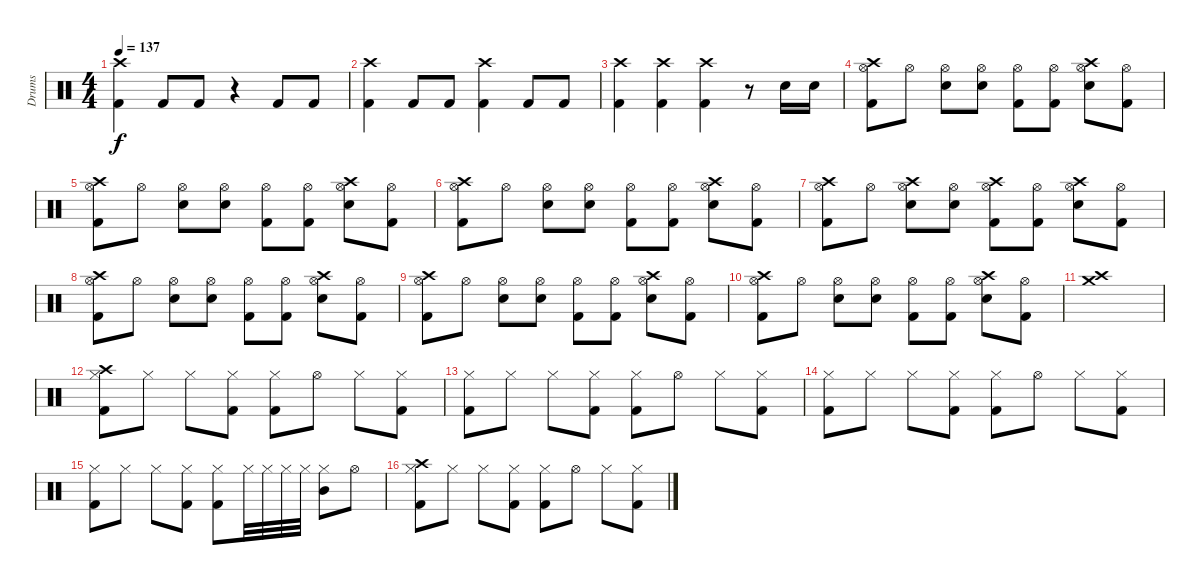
\track ("Drums" "Drums") {instrument percussion}
\staff {score}
\articulation defaults
\ts (4 4)
\tempo 137
\clef neutral
\ks c
("Crash high (hit)" "Kick (hit) 2").4{dy f} "Kick (hit) 2".8 "Kick (hit) 2".8 r.4 "Kick (hit) 2".8 "Kick (hit) 2".8 |
("Crash high (hit)" "Kick (hit) 2").4 "Kick (hit) 2".8 "Kick (hit) 2".8 ("Crash high (hit)" "Kick (hit) 2").4 "Kick (hit) 2".8 "Kick (hit) 2".8 |
("Crash high (hit)" "Kick (hit) 2").4 ("Crash high (hit)" "Kick (hit) 2").4 ("Crash high (hit)" "Kick (hit) 2").4 r.8 "Snare (hit) 2".16 "Snare (hit) 2".16 |
("Crash high (hit)" "Hi-Hat (open)" "Kick (hit) 2").8 "Hi-Hat (open)".8 ("Hi-Hat (open)" "Snare (hit) 2").8 ("Hi-Hat (open)" "Snare (hit) 2").8 ("Hi-Hat (open)" "Kick (hit) 2").8 ("Hi-Hat (open)" "Kick (hit) 2").8 ("Crash high (hit)" "Hi-Hat (open)" "Snare (hit) 2").8 ("Hi-Hat (open)" "Kick (hit) 2").8 |
("Crash high (hit)" "Hi-Hat (open)" "Kick (hit) 2").8 "Hi-Hat (open)".8 ("Hi-Hat (open)" "Snare (hit) 2").8 ("Hi-Hat (open)" "Snare (hit) 2").8 ("Hi-Hat (open)" "Kick (hit) 2").8 ("Hi-Hat (open)" "Kick (hit) 2").8 ("Crash high (hit)" "Hi-Hat (open)" "Snare (hit) 2").8 ("Hi-Hat (open)" "Kick (hit) 2").8 |
("Crash high (hit)" "Hi-Hat (open)" "Kick (hit) 2").8 "Hi-Hat (open)".8 ("Hi-Hat (open)" "Snare (hit) 2").8 ("Hi-Hat (open)" "Snare (hit) 2").8 ("Hi-Hat (open)" "Kick (hit) 2").8 ("Hi-Hat (open)" "Kick (hit) 2").8 ("Crash high (hit)" "Hi-Hat (open)" "Snare (hit) 2").8 ("Hi-Hat (open)" "Kick (hit) 2").8 |
("Crash high (hit)" "Hi-Hat (open)" "Kick (hit) 2").8 "Hi-Hat (open)".8 ("Crash high (hit)" "Hi-Hat (open)" "Snare (hit) 2").8 ("Hi-Hat (open)" "Snare (hit) 2").8 ("Crash high (hit)" "Hi-Hat (open)" "Kick (hit) 2").8 ("Hi-Hat (open)" "Kick (hit) 2").8 ("Crash high (hit)" "Hi-Hat (open)" "Snare (hit) 2").8 ("Hi-Hat (open)" "Kick (hit) 2").8 |
("Crash high (hit)" "Hi-Hat (open)" "Kick (hit) 2").8 "Hi-Hat (open)".8 ("Hi-Hat (open)" "Snare (hit) 2").8 ("Hi-Hat (open)" "Snare (hit) 2").8 ("Hi-Hat (open)" "Kick (hit) 2").8 ("Hi-Hat (open)" "Kick (hit) 2").8 ("Crash high (hit)" "Hi-Hat (open)" "Snare (hit) 2").8 ("Hi-Hat (open)" "Kick (hit) 2").8 |
("Crash high (hit)" "Hi-Hat (open)" "Kick (hit) 2").8 "Hi-Hat (open)".8 ("Hi-Hat (open)" "Snare (hit) 2").8 ("Hi-Hat (open)" "Snare (hit) 2").8 ("Hi-Hat (open)" "Kick (hit) 2").8 ("Hi-Hat (open)" "Kick (hit) 2").8 ("Crash high (hit)" "Hi-Hat (open)" "Snare (hit) 2").8 ("Hi-Hat (open)" "Kick (hit) 2").8 |
("Crash high (hit)" "Hi-Hat (open)" "Kick (hit) 2").8 "Hi-Hat (open)".8 ("Hi-Hat (open)" "Snare (hit) 2").8 ("Hi-Hat (open)" "Snare (hit) 2").8 ("Hi-Hat (open)" "Kick (hit) 2").8 ("Hi-Hat (open)" "Kick (hit) 2").8 ("Crash high (hit)" "Hi-Hat (open)" "Snare (hit) 2").8 ("Hi-Hat (open)" "Kick (hit) 2").8 |
("Crash high (hit)" "Crash medium (hit)").1 |
("Crash high (hit)" "Hi-Hat (closed)" "Kick (hit) 2").8 "Hi-Hat (closed)".8 "Hi-Hat (closed)".8 ("Hi-Hat (closed)" "Kick (hit) 2").8 ("Hi-Hat (closed)" "Kick (hit) 2").8 "Hi-Hat (open)".8 "Hi-Hat (closed)".8 ("Hi-Hat (closed)" "Kick (hit) 2").8 |
("Hi-Hat (closed)" "Kick (hit) 2").8 "Hi-Hat (closed)".8 "Hi-Hat (closed)".8 ("Hi-Hat (closed)" "Kick (hit) 2").8 ("Hi-Hat (closed)" "Kick (hit) 2").8 "Hi-Hat (open)".8 "Hi-Hat (closed)".8 ("Hi-Hat (closed)" "Kick (hit) 2").8 |
("Hi-Hat (closed)" "Kick (hit) 2").8 "Hi-Hat (closed)".8 "Hi-Hat (closed)".8 ("Hi-Hat (closed)" "Kick (hit) 2").8 ("Hi-Hat (closed)" "Kick (hit) 2").8 "Hi-Hat (open)".8 "Hi-Hat (closed)".8 ("Hi-Hat (closed)" "Kick (hit) 2").8 |
("Hi-Hat (closed)" "Kick (hit) 2").8 "Hi-Hat (closed)".8 "Hi-Hat (closed)".8 ("Hi-Hat (closed)" "Kick (hit) 2").8 ("Hi-Hat (closed)" "Kick (hit) 2").8 "Hi-Hat (closed)".32 "Hi-Hat (closed)".32 "Hi-Hat (closed)".32 "Hi-Hat (closed)".32 ("Hi-Hat (closed)" "Mid Tom (hit)").8 "Hi-Hat (open)".8 |
("Crash high (hit)" "Hi-Hat (closed)" "Kick (hit) 2").8 "Hi-Hat (closed)".8 "Hi-Hat (closed)".8 ("Hi-Hat (closed)" "Kick (hit) 2").8 ("Hi-Hat (closed)" "Kick (hit) 2").8 "Hi-Hat (open)".8 "Hi-Hat (closed)".8 ("Hi-Hat (closed)" "Kick (hit) 2").8
